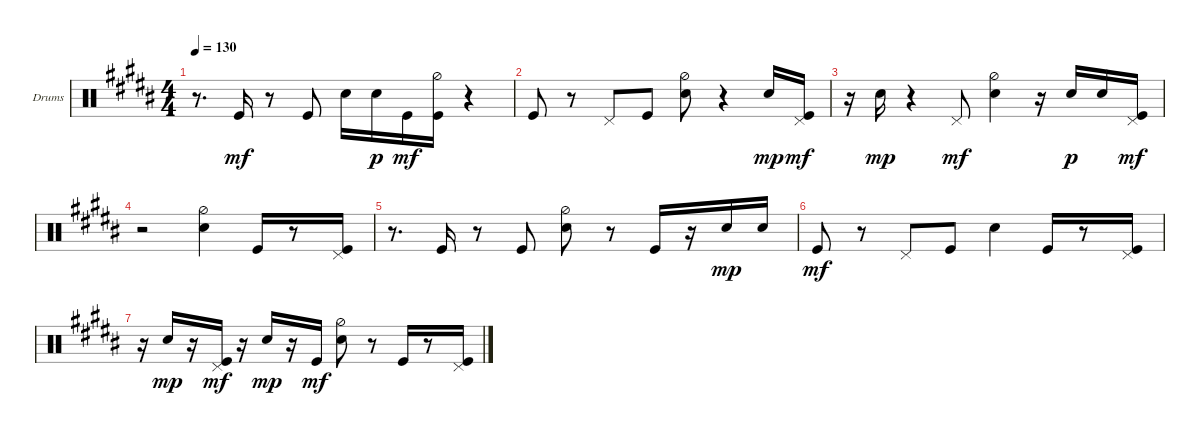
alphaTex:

\defaultSystemsLayout 4
\bracketExtendMode groupsimilarinstruments
\firstSystemTrackNameOrientation horizontal
\otherSystemsTrackNameOrientation horizontal
\track ("Drumkit" "Drums") {multiBarRest instrument percussion}
\staff {score}
\articulation defaults
\ts (4 4)
\tempo 130
\clef neutral
\ks b
r.8{d dy mf} "Kick (hit)".16 r.8 "Kick (hit)".8 "Snare (hit) 2".16 "Snare (hit) 2".16{dy p} "Kick (hit)".16{dy mf} ("Kick (hit)" "Hi-Hat (half)").16 r.4 |
"Kick (hit)".8 r.8 "Pedal Hi-Hat (hit)".8 "Kick (hit)".8 ("Snare (hit) 2" "Hi-Hat (half)").8 r.4 "Snare (hit) 2".16{dy mp} ("Kick (hit)" "Pedal Hi-Hat (hit)").16{dy mf} |
r.16 "Snare (hit) 2".16{dy mp} r.4 "Pedal Hi-Hat (hit)".8{dy mf} ("Snare (hit) 2" "Hi-Hat (half)").4 r.16 "Snare (hit) 2".16{dy p} "Snare (hit) 2".16 ("Kick (hit)" "Pedal Hi-Hat (hit)").16{dy mf} |
r.2 ("Snare (hit) 2" "Hi-Hat (half)").4 "Kick (hit)".16 r.8 ("Kick (hit)" "Pedal Hi-Hat (hit)").16 |
r.8{d} "Kick (hit)".16 r.8 "Kick (hit)".8 ("Snare (hit) 2" "Hi-Hat (half)").8 r.8 "Kick (hit)".16 r.16 "Snare (hit) 2".16{dy mp} "Snare (hit) 2".16 |
"Kick (hit)".8{dy mf} r.8 "Pedal Hi-Hat (hit)".8 "Kick (hit)".8 "Snare (hit) 2".4 "Kick (hit)".16 r.8 ("Kick (hit)" "Pedal Hi-Hat (hit)").16 |
r.16 "Snare (hit) 2".16{dy mp} r.16 ("Kick (hit)" "Pedal Hi-Hat (hit)").16{dy mf} r.16 "Snare (hit) 2".16{dy mp} r.16 "Kick (hit)".16{dy mf} ("Snare (hit) 2" "Hi-Hat (half)").8 r.8 "Kick (hit)".16 r.8 ("Kick (hit)" "Pedal Hi-Hat (hit)").16
